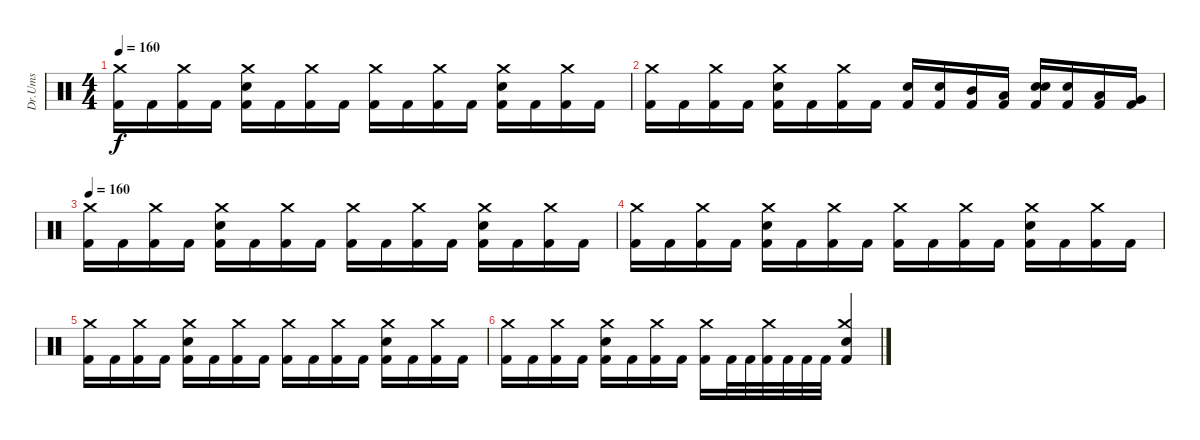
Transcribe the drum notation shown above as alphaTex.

\track ("Dr.Ums" "Dr.Ums") {instrument percussion}
\staff {score}
\articulation defaults
\ts (4 4)
\tempo 160
\clef neutral
\ks c
("Kick (hit) 2" "Crash medium (hit)").16{dy f} "Kick (hit) 2".16 ("Kick (hit) 2" "Crash medium (hit)").16 "Kick (hit) 2".16 ("Kick (hit) 2" "Crash medium (hit)" "Snare (hit) 2").16 "Kick (hit) 2".16 ("Kick (hit) 2" "Crash medium (hit)").16 "Kick (hit) 2".16 ("Kick (hit) 2" "Crash medium (hit)").16 "Kick (hit) 2".16 ("Kick (hit) 2" "Crash medium (hit)").16 "Kick (hit) 2".16 ("Kick (hit) 2" "Crash medium (hit)" "Snare (hit) 2").16 "Kick (hit) 2".16 ("Kick (hit) 2" "Crash medium (hit)").16 "Kick (hit) 2".16 |
("Kick (hit) 2" "Crash medium (hit)").16 "Kick (hit) 2".16 ("Kick (hit) 2" "Crash medium (hit)").16 "Kick (hit) 2".16 ("Kick (hit) 2" "Crash medium (hit)" "Snare (hit) 2").16 "Kick (hit) 2".16 ("Kick (hit) 2" "Crash medium (hit)").16 "Kick (hit) 2".16 ("Kick (hit) 2" "Snare (hit) 2").16 ("Kick (hit) 2" "Snare (hit) 2").16 ("Kick (hit) 2" "Mid Tom (hit)").16 ("Kick (hit) 2" "Low Tom (hit)").16 ("Kick (hit) 2" "Snare (hit) 2" "Snare (hit) 2").16 ("Kick (hit) 2" "Snare (hit) 2").16 ("Kick (hit) 2" "Low Tom (hit)").16 ("Kick (hit) 2" "Very Low Tom (hit)").16 |
\tempo 160
("Kick (hit) 2" "Crash medium (hit)").16 "Kick (hit) 2".16 ("Kick (hit) 2" "Crash medium (hit)").16 "Kick (hit) 2".16 ("Kick (hit) 2" "Crash medium (hit)" "Snare (hit) 2").16 "Kick (hit) 2".16 ("Kick (hit) 2" "Crash medium (hit)").16 "Kick (hit) 2".16 ("Kick (hit) 2" "Crash medium (hit)").16 "Kick (hit) 2".16 ("Kick (hit) 2" "Crash medium (hit)").16 "Kick (hit) 2".16 ("Kick (hit) 2" "Crash medium (hit)" "Snare (hit) 2").16 "Kick (hit) 2".16 ("Kick (hit) 2" "Crash medium (hit)").16 "Kick (hit) 2".16 |
("Kick (hit) 2" "Crash medium (hit)").16 "Kick (hit) 2".16 ("Kick (hit) 2" "Crash medium (hit)").16 "Kick (hit) 2".16 ("Kick (hit) 2" "Crash medium (hit)" "Snare (hit) 2").16 "Kick (hit) 2".16 ("Kick (hit) 2" "Crash medium (hit)").16 "Kick (hit) 2".16 ("Kick (hit) 2" "Crash medium (hit)").16 "Kick (hit) 2".16 ("Kick (hit) 2" "Crash medium (hit)").16 "Kick (hit) 2".16 ("Kick (hit) 2" "Crash medium (hit)" "Snare (hit) 2").16 "Kick (hit) 2".16 ("Kick (hit) 2" "Crash medium (hit)").16 "Kick (hit) 2".16 |
("Kick (hit) 2" "Crash medium (hit)").16 "Kick (hit) 2".16 ("Kick (hit) 2" "Crash medium (hit)").16 "Kick (hit) 2".16 ("Kick (hit) 2" "Crash medium (hit)" "Snare (hit) 2").16 "Kick (hit) 2".16 ("Kick (hit) 2" "Crash medium (hit)").16 "Kick (hit) 2".16 ("Kick (hit) 2" "Crash medium (hit)").16 "Kick (hit) 2".16 ("Kick (hit) 2" "Crash medium (hit)").16 "Kick (hit) 2".16 ("Kick (hit) 2" "Crash medium (hit)" "Snare (hit) 2").16 "Kick (hit) 2".16 ("Kick (hit) 2" "Crash medium (hit)").16 "Kick (hit) 2".16 |
("Kick (hit) 2" "Crash medium (hit)").16 "Kick (hit) 2".16 ("Kick (hit) 2" "Crash medium (hit)").16 "Kick (hit) 2".16 ("Kick (hit) 2" "Crash medium (hit)" "Snare (hit) 2").16 "Kick (hit) 2".16 ("Kick (hit) 2" "Crash medium (hit)").16 "Kick (hit) 2".16 ("Kick (hit) 2" "Crash medium (hit)").16 "Kick (hit) 2".32 "Kick (hit) 2".32 ("Kick (hit) 2" "Crash medium (hit)").32 "Kick (hit) 2".32 "Kick (hit) 2".32 "Kick (hit) 2".32 ("Kick (hit) 2" "Crash medium (hit)" "Snare (hit) 2").4
